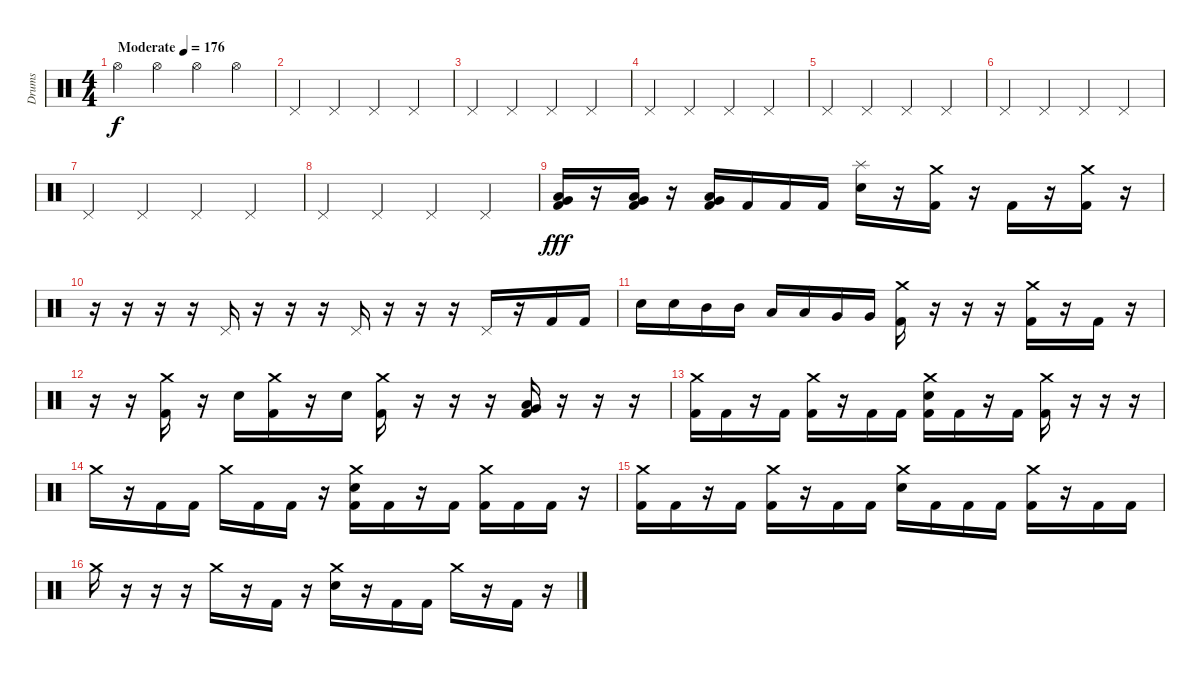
\track ("Drums" "Drums") {instrument percussion}
\staff {score}
\articulation defaults
\ts (4 4)
\tempo (176 "Moderate")
\clef neutral
\ks c "Hi-Hat (open)".4{dy f} "Hi-Hat (open)".4 "Hi-Hat (open)".4 "Hi-Hat (open)".4
|
"Pedal Hi-Hat (hit)".4 "Pedal Hi-Hat (hit)".4 "Pedal Hi-Hat (hit)".4 "Pedal Hi-Hat (hit)".4 |
"Pedal Hi-Hat (hit)".4 "Pedal Hi-Hat (hit)".4 "Pedal Hi-Hat (hit)".4 "Pedal Hi-Hat (hit)".4 |
"Pedal Hi-Hat (hit)".4 "Pedal Hi-Hat (hit)".4 "Pedal Hi-Hat (hit)".4 "Pedal Hi-Hat (hit)".4 |
"Pedal Hi-Hat (hit)".4 "Pedal Hi-Hat (hit)".4 "Pedal Hi-Hat (hit)".4 "Pedal Hi-Hat (hit)".4 |
"Pedal Hi-Hat (hit)".4 "Pedal Hi-Hat (hit)".4 "Pedal Hi-Hat (hit)".4 "Pedal Hi-Hat (hit)".4 |
"Pedal Hi-Hat (hit)".4 "Pedal Hi-Hat (hit)".4 "Pedal Hi-Hat (hit)".4 "Pedal Hi-Hat (hit)".4 |
"Pedal Hi-Hat (hit)".4 "Pedal Hi-Hat (hit)".4 "Pedal Hi-Hat (hit)".4 "Pedal Hi-Hat (hit)".4 |
("Very Low Tom (hit)" "Low Tom (hit)" "Kick (hit) 2").16{dy fff} r.16 ("Kick (hit) 2" "Very Low Tom (hit)" "Low Tom (hit)").16 r.16 ("Kick (hit) 2" "Low Tom (hit)" "Very Low Tom (hit)").16 "Kick (hit) 2".16 "Kick (hit) 2".16 "Kick (hit) 2".16 ("Splash (hit)" "Electric Snare (hit)").16 r.16 ("Kick (hit) 2" "Crash medium (hit)").16 r.16 "Kick (hit) 2".16 r.16 ("Crash medium (hit)" "Kick (hit) 2").16 r.16 |
r.16 r.16 r.16 r.16 "Pedal Hi-Hat (hit)".16 r.16 r.16 r.16 "Pedal Hi-Hat (hit)".16 r.16 r.16 r.16 "Pedal Hi-Hat (hit)".16 r.16 "Kick (hit) 2".16 "Kick (hit) 2".16 |
"Electric Snare (hit)".16 "Electric Snare (hit)".16 "Mid Tom (hit)".16 "Mid Tom (hit)".16 "Low Tom (hit)".16 "Low Tom (hit)".16 "Very Low Tom (hit)".16 "Very Low Tom (hit)".16 ("Crash medium (hit)" "Kick (hit) 2").16 r.16 r.16 r.16 ("Crash medium (hit)" "Kick (hit) 2").16 r.16 "Kick (hit) 2".16 r.16 |
r.16 r.16 ("Crash medium (hit)" "Kick (hit) 2").16 r.16 "Electric Snare (hit)".16 ("Kick (hit) 2" "Crash medium (hit)").16 r.16 "Electric Snare (hit)".16 ("Kick (hit) 2" "Crash medium (hit)").16 r.16 r.16 r.16 ("Kick (hit) 2" "Low Tom (hit)" "Very Low Tom (hit)").16 r.16 r.16 r.16 |
("Kick (hit) 2" "Crash medium (hit)").16 "Kick (hit) 2".16 r.16 "Kick (hit) 2".16 ("Kick (hit) 2" "Crash medium (hit)").16 r.16 "Kick (hit) 2".16 "Kick (hit) 2".16 ("Kick (hit) 2" "Crash medium (hit)" "Electric Snare (hit)").16 "Kick (hit) 2".16 r.16 "Kick (hit) 2".16 ("Kick (hit) 2" "Crash medium (hit)").16 r.16 r.16 r.16 |
"Crash medium (hit)".16 r.16 "Kick (hit) 2".16 "Kick (hit) 2".16 "Crash medium (hit)".16 "Kick (hit) 2".16 "Kick (hit) 2".16 r.16 ("Kick (hit) 2" "Crash medium (hit)" "Electric Snare (hit)").16 "Kick (hit) 2".16 r.16 "Kick (hit) 2".16 ("Kick (hit) 2" "Crash medium (hit)").16 "Kick (hit) 2".16 "Kick (hit) 2".16 r.16 |
("Kick (hit) 2" "Crash medium (hit)").16 "Kick (hit) 2".16 r.16 "Kick (hit) 2".16 ("Kick (hit) 2" "Crash medium (hit)").16 r.16 "Kick (hit) 2".16 "Kick (hit) 2".16 ("Crash medium (hit)" "Electric Snare (hit)").16 "Kick (hit) 2".16 "Kick (hit) 2".16 "Kick (hit) 2".16 ("Kick (hit) 2" "Crash medium (hit)").16 r.16 "Kick (hit) 2".16 "Kick (hit) 2".16 |
"Crash medium (hit)".16 r.16 r.16 r.16 "Crash medium (hit)".16 r.16 "Kick (hit) 2".16 r.16 ("Crash medium (hit)" "Electric Snare (hit)").16 r.16 "Kick (hit) 2".16 "Kick (hit) 2".16 "Crash medium (hit)".16 r.16 "Kick (hit) 2".16 r.16
